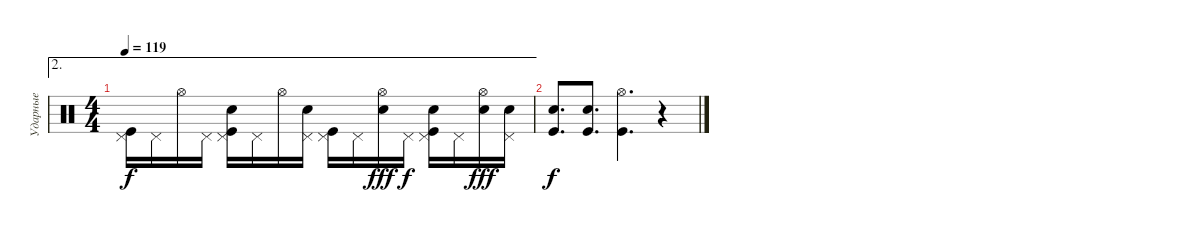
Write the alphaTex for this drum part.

\track ("Ударные" "Ударные") {instrument percussion}
\staff {score}
\articulation defaults
\ae 2
\ts (4 4)
\tempo 119
\clef neutral
\ks c
("Kick (hit)" "Pedal Hi-Hat (hit)").16{dy f} "Pedal Hi-Hat (hit)".16 "Hi-Hat (open)".16 "Pedal Hi-Hat (hit)".16 ("Kick (hit)" "Electric Snare (hit)" "Pedal Hi-Hat (hit)").16 "Pedal Hi-Hat (hit)".16 "Hi-Hat (open)".16 ("Electric Snare (hit)" "Pedal Hi-Hat (hit)").16 ("Kick (hit)" "Pedal Hi-Hat (hit)").16 "Pedal Hi-Hat (hit)".16 ("Electric Snare (hit)" "Hi-Hat (open)").16{dy fff} "Pedal Hi-Hat (hit)".16{dy f} ("Kick (hit)" "Electric Snare (hit)" "Pedal Hi-Hat (hit)").16 "Pedal Hi-Hat (hit)".16 ("Electric Snare (hit)" "Hi-Hat (open)").16{dy fff} ("Pedal Hi-Hat (hit)" "Electric Snare (hit)").16 |
("Kick (hit)" "Electric Snare (hit)").8{d dy f} ("Kick (hit)" "Electric Snare (hit)").8{d} ("Kick (hit)" "Hi-Hat (open)").4{d} r.4
